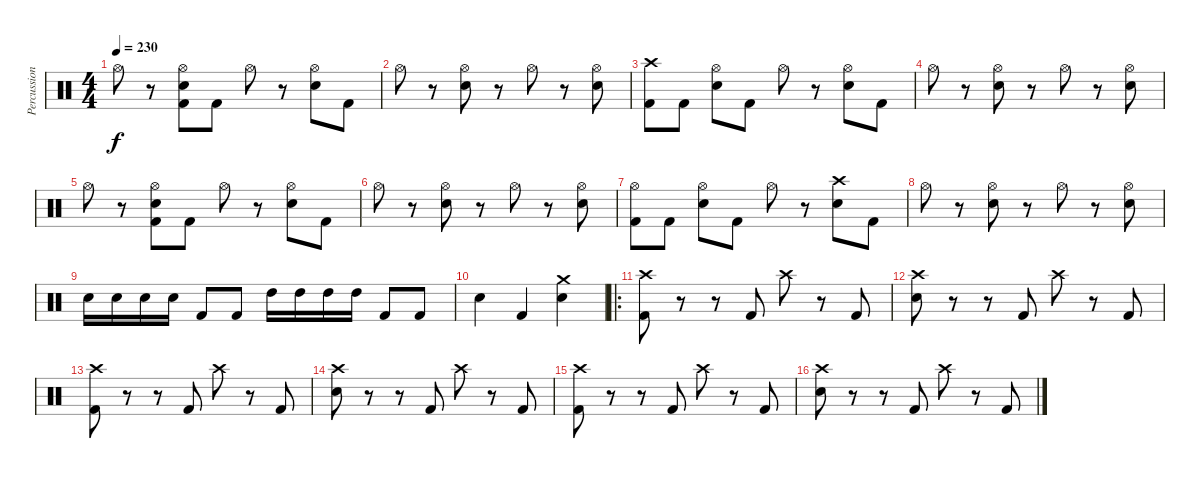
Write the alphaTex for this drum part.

\track ("Percussion" "Percussion") {instrument percussion}
\staff {score}
\articulation defaults
\ts (4 4)
\tempo 230
\clef neutral
\ks c "Hi-Hat (open)".8{dy f}
r.8 ("Hi-Hat (open)" "Electric Snare (hit)" "Kick (hit) 2").8 "Kick (hit) 2".8 "Hi-Hat (open)".8 r.8 ("Hi-Hat (open)" "Electric Snare (hit)").8 "Kick (hit) 2".8 |
"Hi-Hat (open)".8 r.8 ("Hi-Hat (open)" "Electric Snare (hit)").8 r.8 "Hi-Hat (open)".8 r.8 ("Hi-Hat (open)" "Electric Snare (hit)").8 |
("Crash high (hit)" "Kick (hit) 2").8 "Kick (hit) 2".8 ("Hi-Hat (open)" "Electric Snare (hit)").8 "Kick (hit) 2".8 "Hi-Hat (open)".8 r.8 ("Hi-Hat (open)" "Electric Snare (hit)").8 "Kick (hit) 2".8 |
"Hi-Hat (open)".8 r.8 ("Hi-Hat (open)" "Electric Snare (hit)").8 r.8 "Hi-Hat (open)".8 r.8 ("Hi-Hat (open)" "Electric Snare (hit)").8 |
"Hi-Hat (open)".8 r.8 ("Hi-Hat (open)" "Electric Snare (hit)" "Kick (hit) 2").8 "Kick (hit) 2".8 "Hi-Hat (open)".8 r.8 ("Hi-Hat (open)" "Electric Snare (hit)").8 "Kick (hit) 2".8 |
"Hi-Hat (open)".8 r.8 ("Hi-Hat (open)" "Electric Snare (hit)").8 r.8 "Hi-Hat (open)".8 r.8 ("Hi-Hat (open)" "Electric Snare (hit)").8 |
("Hi-Hat (open)" "Kick (hit) 2").8 "Kick (hit) 2".8 ("Hi-Hat (open)" "Electric Snare (hit)").8 "Kick (hit) 2".8 "Hi-Hat (open)".8 r.8 ("Crash high (hit)" "Electric Snare (hit)").8 "Kick (hit) 2".8 |
"Hi-Hat (open)".8 r.8 ("Hi-Hat (open)" "Electric Snare (hit)").8 r.8 "Hi-Hat (open)".8 r.8 ("Hi-Hat (open)" "Electric Snare (hit)").8 |
"Electric Snare (hit)".16 "Electric Snare (hit)".16 "Electric Snare (hit)".16 "Electric Snare (hit)".16 "Kick (hit) 2".8 "Kick (hit) 2".8 "High Tom (hit)".16 "High Tom (hit)".16 "High Tom (hit)".16 "High Tom (hit)".16 "Kick (hit) 2".8 "Kick (hit) 2".8 |
"Electric Snare (hit)".4 "Kick (hit) 2".4 ("Crash medium (hit)" "Electric Snare (hit)").4 |
\ro
("Crash high (hit)" "Kick (hit) 2").8 r.8 r.8 "Kick (hit) 2".8 "Crash high (hit)".8 r.8 "Kick (hit) 2".8 |
("Crash high (hit)" "Electric Snare (hit)").8 r.8 r.8 "Kick (hit) 2".8 "Crash high (hit)".8 r.8 "Kick (hit) 2".8 |
("Crash high (hit)" "Kick (hit) 2").8 r.8 r.8 "Kick (hit) 2".8 "Crash high (hit)".8 r.8 "Kick (hit) 2".8 |
("Crash high (hit)" "Electric Snare (hit)").8 r.8 r.8 "Kick (hit) 2".8 "Crash high (hit)".8 r.8 "Kick (hit) 2".8 |
("Crash high (hit)" "Kick (hit) 2").8 r.8 r.8 "Kick (hit) 2".8 "Crash high (hit)".8 r.8 "Kick (hit) 2".8 |
("Crash high (hit)" "Electric Snare (hit)").8 r.8 r.8 "Kick (hit) 2".8 "Crash high (hit)".8 r.8 "Kick (hit) 2".8
